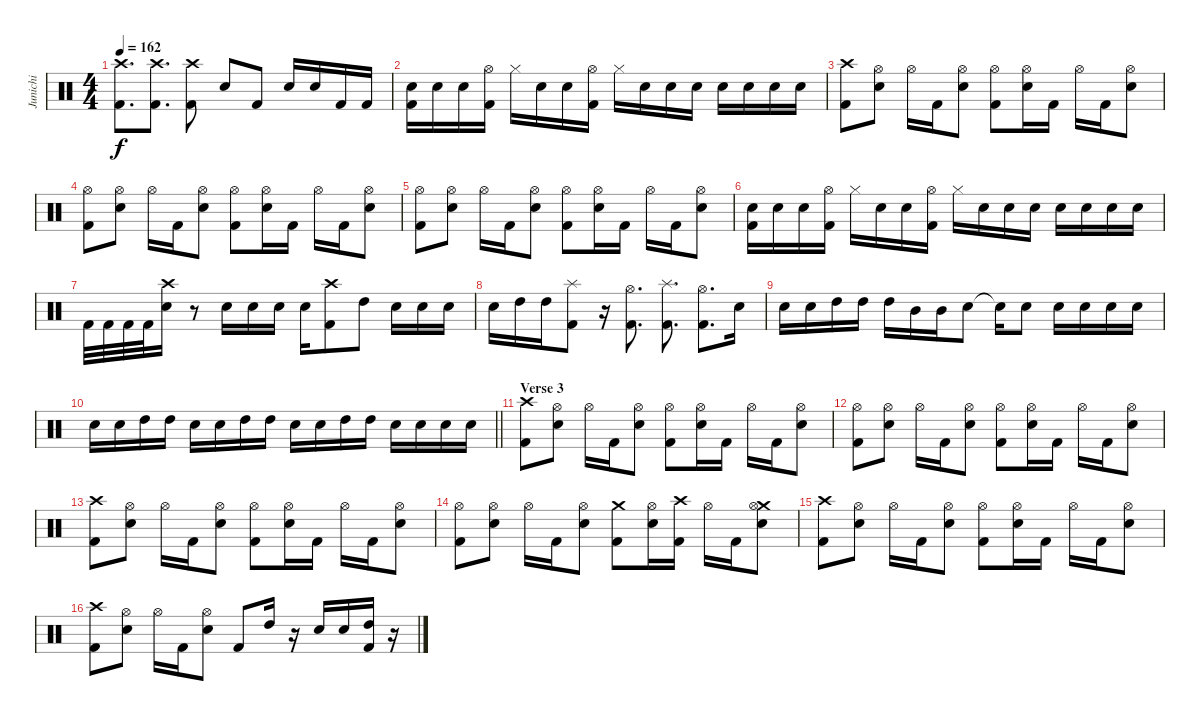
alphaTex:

\track ("Junichi" "Junichi") {instrument percussion}
\staff {score}
\articulation defaults
\ts (4 4)
\tempo 162
\clef neutral
\ks c
("Crash high (hit)" "Kick (hit) 2").8{d dy f} ("Crash high (hit)" "Kick (hit) 2").8{d} ("Crash high (hit)" "Kick (hit) 2").8 "Electric Snare (hit)".8 "Kick (hit) 2".8 "Electric Snare (hit)".16 "Electric Snare (hit)".16 "Kick (hit) 2".16 "Kick (hit) 2".16 |
("Electric Snare (hit)" "Kick (hit) 2").16 "Electric Snare (hit)".16 "Electric Snare (hit)".16 ("Hi-Hat (open)" "Kick (hit) 2").16 "Hi-Hat (closed)".16 "Electric Snare (hit)".16 "Electric Snare (hit)".16 ("Hi-Hat (open)" "Kick (hit) 2").16 "Hi-Hat (closed)".16 "Electric Snare (hit)".16 "Electric Snare (hit)".16 "Electric Snare (hit)".16 "Electric Snare (hit)".16 "Electric Snare (hit)".16 "Electric Snare (hit)".16 "Electric Snare (hit)".16 |
("Crash high (hit)" "Kick (hit) 2").8 ("Hi-Hat (open)" "Electric Snare (hit)").8 "Hi-Hat (open)".16 "Kick (hit) 2".16 ("Hi-Hat (open)" "Electric Snare (hit)").8 ("Hi-Hat (open)" "Kick (hit) 2").8 ("Hi-Hat (open)" "Electric Snare (hit)").16 "Kick (hit) 2".16 "Hi-Hat (open)".16 "Kick (hit) 2".16 ("Hi-Hat (open)" "Electric Snare (hit)").8 |
("Hi-Hat (open)" "Kick (hit) 2").8 ("Hi-Hat (open)" "Electric Snare (hit)").8 "Hi-Hat (open)".16 "Kick (hit) 2".16 ("Hi-Hat (open)" "Electric Snare (hit)").8 ("Hi-Hat (open)" "Kick (hit) 2").8 ("Hi-Hat (open)" "Electric Snare (hit)").16 "Kick (hit) 2".16 "Hi-Hat (open)".16 "Kick (hit) 2".16 ("Hi-Hat (open)" "Electric Snare (hit)").8 |
("Hi-Hat (open)" "Kick (hit) 2").8 ("Hi-Hat (open)" "Electric Snare (hit)").8 "Hi-Hat (open)".16 "Kick (hit) 2".16 ("Hi-Hat (open)" "Electric Snare (hit)").8 ("Hi-Hat (open)" "Kick (hit) 2").8 ("Hi-Hat (open)" "Electric Snare (hit)").16 "Kick (hit) 2".16 "Hi-Hat (open)".16 "Kick (hit) 2".16 ("Hi-Hat (open)" "Electric Snare (hit)").8 |
("Electric Snare (hit)" "Kick (hit) 2").16 "Electric Snare (hit)".16 "Electric Snare (hit)".16 ("Hi-Hat (open)" "Kick (hit) 2").16 "Hi-Hat (closed)".16 "Electric Snare (hit)".16 "Electric Snare (hit)".16 ("Hi-Hat (open)" "Kick (hit) 2").16 "Hi-Hat (closed)".16 "Electric Snare (hit)".16 "Electric Snare (hit)".16 "Electric Snare (hit)".16 "Electric Snare (hit)".16 "Electric Snare (hit)".16 "Electric Snare (hit)".16 "Electric Snare (hit)".16 |
"Kick (hit) 2".32 "Kick (hit) 2".32 "Kick (hit) 2".32 "Kick (hit) 2".32 ("Crash high (hit)" "Electric Snare (hit)").16 r.8 "Electric Snare (hit)".16 "Electric Snare (hit)".16 "Electric Snare (hit)".16 "Electric Snare (hit)".16 ("Crash high (hit)" "Kick (hit) 2").8 "High Tom (hit)".8 "Electric Snare (hit)".16 "Electric Snare (hit)".16 "Electric Snare (hit)".16 |
"Electric Snare (hit)".16 "High Tom (hit)".16 "High Tom (hit)".16 ("Splash (hit)" "Kick (hit) 2").8 r.16 ("Hi-Hat (open)" "Kick (hit) 2").8{d} ("Splash (hit)" "Kick (hit) 2").8{d} ("Hi-Hat (open)" "Kick (hit) 2").8{d} "Electric Snare (hit)".16 |
"Electric Snare (hit)".16 "Electric Snare (hit)".16 "High Tom (hit)".16 "High Tom (hit)".16 "High Tom (hit)".16 "Mid Tom (hit)".16 "Mid Tom (hit)".16 "Electric Snare (hit)".8 "Snare (hit)"{t}.16 "Electric Snare (hit)".8 "Electric Snare (hit)".16 "Electric Snare (hit)".16 "Electric Snare (hit)".16 "Electric Snare (hit)".16 |
\barLineRight lightlight "Electric Snare (hit)".16 "Electric Snare (hit)".16 "High Tom (hit)".16 "High Tom (hit)".16 "Electric Snare (hit)".16 "Electric Snare (hit)".16 "High Tom (hit)".16 "High Tom (hit)".16 "Electric Snare (hit)".16 "Electric Snare (hit)".16 "High Tom (hit)".16 "High Tom (hit)".16 "Electric Snare (hit)".16 "Electric Snare (hit)".16 "Electric Snare (hit)".16 "Electric Snare (hit)".16
|
\section ("" "Verse 3")
("Crash high (hit)" "Kick (hit) 2").8 ("Hi-Hat (open)" "Electric Snare (hit)").8 "Hi-Hat (open)".16 "Kick (hit) 2".16 ("Hi-Hat (open)" "Electric Snare (hit)").8 ("Hi-Hat (open)" "Kick (hit) 2").8 ("Hi-Hat (open)" "Electric Snare (hit)").16 "Kick (hit) 2".16 "Hi-Hat (open)".16 "Kick (hit) 2".16 ("Hi-Hat (open)" "Electric Snare (hit)").8 |
("Hi-Hat (open)" "Kick (hit) 2").8 ("Hi-Hat (open)" "Electric Snare (hit)").8 "Hi-Hat (open)".16 "Kick (hit) 2".16 ("Hi-Hat (open)" "Electric Snare (hit)").8 ("Hi-Hat (open)" "Kick (hit) 2").8 ("Hi-Hat (open)" "Electric Snare (hit)").16 "Kick (hit) 2".16 "Hi-Hat (open)".16 "Kick (hit) 2".16 ("Hi-Hat (open)" "Electric Snare (hit)").8 |
("Crash high (hit)" "Kick (hit) 2").8 ("Hi-Hat (open)" "Electric Snare (hit)").8 "Hi-Hat (open)".16 "Kick (hit) 2".16 ("Hi-Hat (open)" "Electric Snare (hit)").8 ("Hi-Hat (open)" "Kick (hit) 2").8 ("Hi-Hat (open)" "Electric Snare (hit)").16 "Kick (hit) 2".16 "Hi-Hat (open)".16 "Kick (hit) 2".16 ("Hi-Hat (open)" "Electric Snare (hit)").8 |
("Hi-Hat (open)" "Kick (hit) 2").8 ("Hi-Hat (open)" "Electric Snare (hit)").8 "Hi-Hat (open)".16 "Kick (hit) 2".16 ("Hi-Hat (open)" "Electric Snare (hit)").8 ("Crash medium (hit)" "Kick (hit) 2").8 ("Hi-Hat (open)" "Electric Snare (hit)").16 ("Crash high (hit)" "Kick (hit) 2").16 "Hi-Hat (open)".16 "Kick (hit) 2".16 ("Crash medium (hit)" "Hi-Hat (open)" "Electric Snare (hit)").8 |
("Crash high (hit)" "Kick (hit) 2").8 ("Hi-Hat (open)" "Electric Snare (hit)").8 "Hi-Hat (open)".16 "Kick (hit) 2".16 ("Hi-Hat (open)" "Electric Snare (hit)").8 ("Hi-Hat (open)" "Kick (hit) 2").8 ("Hi-Hat (open)" "Electric Snare (hit)").16 "Kick (hit) 2".16 "Hi-Hat (open)".16 "Kick (hit) 2".16 ("Hi-Hat (open)" "Electric Snare (hit)").8 |
("Crash high (hit)" "Kick (hit) 2").8 ("Hi-Hat (open)" "Electric Snare (hit)").8 "Hi-Hat (open)".16 "Kick (hit) 2".16 ("Hi-Hat (open)" "Electric Snare (hit)").8 "Kick (hit) 2".8 "High Tom (hit)".16 r.16 "Electric Snare (hit)".16 "Electric Snare (hit)".16 ("High Tom (hit)" "Kick (hit) 2").16 r.16
